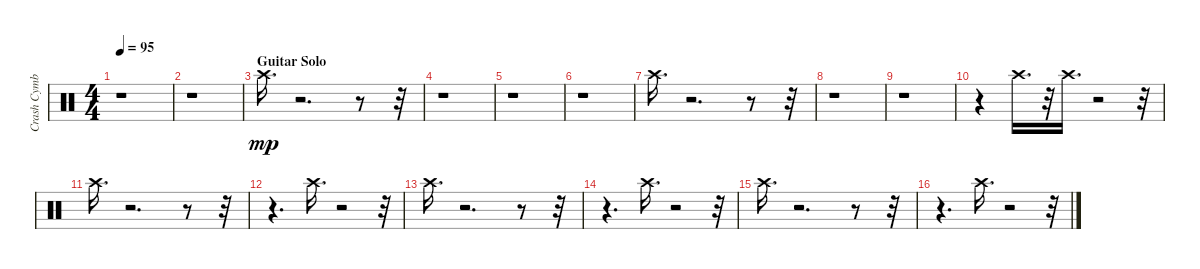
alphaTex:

\track ("Crash Cymbal" "Crash Cymb") {instrument percussion}
\staff {score}
\articulation defaults
\ts (4 4)
\tempo 95
\clef neutral
\ks c
r.1{dy f} |
r.1 |
\section ("" "Guitar Solo")
"Crash high (hit)".16{d dy mp} r.2{d} r.8 r.32 |
r.1 |
r.1 |
r.1 |
"Crash high (hit)".16{d} r.2{d} r.8 r.32 |
r.1 |
r.1 |
r.4 "Crash high (hit)".16{d} r.32 "Crash high (hit)".16{d} r.2 r.32 |
"Crash high (hit)".16{d} r.2{d} r.8 r.32 |
r.4{d} "Crash high (hit)".16{d} r.2 r.32 |
"Crash high (hit)".16{d} r.2{d} r.8 r.32 |
r.4{d} "Crash high (hit)".16{d} r.2 r.32 |
"Crash high (hit)".16{d} r.2{d} r.8 r.32 |
r.4{d} "Crash high (hit)".16{d} r.2 r.32
